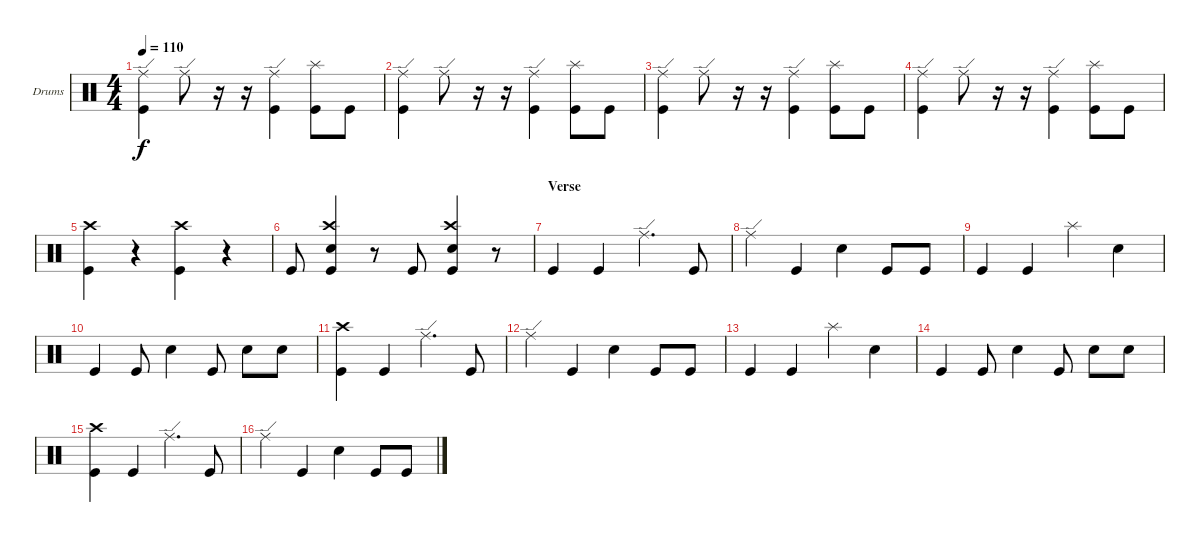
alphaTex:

\bracketExtendMode groupsimilarinstruments
\firstSystemTrackNameOrientation horizontal
\otherSystemsTrackNameOrientation horizontal
\track ("Drumkit" "Drums") {instrument percussion}
\staff {score}
\articulation defaults
\ts (4 4)
\tempo 110
\clef neutral
\ks c
("Ride (edge)" "Kick (hit)").4{dy f} "Ride (edge)".8 r.16 r.16 ("Ride (edge)" "Kick (hit)").4 ("Splash (hit)" "Kick (hit)").8 "Kick (hit)".8 |
("Ride (edge)" "Kick (hit)").4 "Ride (edge)".8 r.16 r.16 ("Ride (edge)" "Kick (hit)").4 ("Splash (hit)" "Kick (hit)").8 "Kick (hit)".8 |
("Ride (edge)" "Kick (hit)").4 "Ride (edge)".8 r.16 r.16 ("Ride (edge)" "Kick (hit)").4 ("Splash (hit)" "Kick (hit)").8 "Kick (hit)".8 |
("Ride (edge)" "Kick (hit)").4 "Ride (edge)".8 r.16 r.16 ("Ride (edge)" "Kick (hit)").4 ("Splash (hit)" "Kick (hit)").8 "Kick (hit)".8 |
("Crash high (hit)" "Kick (hit)").4 r.4 ("Crash high (hit)" "Kick (hit)").4 r.4 |
"Kick (hit)".8 ("Crash high (hit)" "Kick (hit)" "Snare (hit) 2").4 r.8 "Kick (hit)".8 ("Crash high (hit)" "Kick (hit)" "Snare (hit) 2").4 r.8 |
\section ("" "Verse")
"Kick (hit)".4 "Kick (hit)".4 "Ride (edge)".4{d} "Kick (hit)".8 |
"Ride (edge)".4 "Kick (hit)".4 "Snare (hit) 2".4 "Kick (hit)".8 "Kick (hit)".8 |
"Kick (hit)".4 "Kick (hit)".4 "Splash (hit)".4 "Snare (hit) 2".4 |
"Kick (hit)".4 "Kick (hit)".8 "Snare (hit) 2".4 "Kick (hit)".8 "Snare (hit) 2".8 "Snare (hit) 2".8 |
("Crash high (hit)" "Kick (hit)").4 "Kick (hit)".4 "Ride (edge)".4{d} "Kick (hit)".8 |
"Ride (edge)".4 "Kick (hit)".4 "Snare (hit) 2".4 "Kick (hit)".8 "Kick (hit)".8 |
"Kick (hit)".4 "Kick (hit)".4 "Splash (hit)".4 "Snare (hit) 2".4 |
"Kick (hit)".4 "Kick (hit)".8 "Snare (hit) 2".4 "Kick (hit)".8 "Snare (hit) 2".8 "Snare (hit) 2".8 |
("Crash high (hit)" "Kick (hit)").4 "Kick (hit)".4 "Ride (edge)".4{d} "Kick (hit)".8 |
"Ride (edge)".4 "Kick (hit)".4 "Snare (hit) 2".4 "Kick (hit)".8 "Kick (hit)".8
